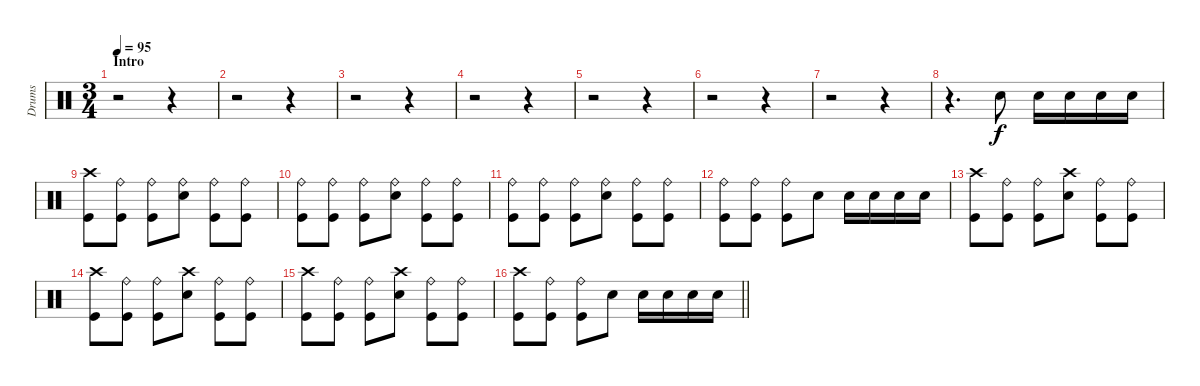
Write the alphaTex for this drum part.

\track ("Drums" "Drums") {instrument percussion}
\staff {score}
\articulation defaults
\ts (3 4)
\section ("" "Intro ")
\tempo 95
\clef neutral
\ks c
r.2{dy f} r.4 |
r.2 r.4 |
r.2 r.4 |
r.2 r.4 |
r.2 r.4 |
r.2 r.4 |
r.2 r.4 |
r.4{d} "Electric Snare (hit)".8 "Electric Snare (hit)".16 "Electric Snare (hit)".16 "Electric Snare (hit)".16 "Electric Snare (hit)".16 |
("Crash high (hit)" "Kick (hit)").8 ("Ride (bell)" "Kick (hit)").8 ("Ride (bell)" "Kick (hit)").8 ("Ride (bell)" "Electric Snare (hit)").8 ("Ride (bell)" "Kick (hit)").8 ("Ride (bell)" "Kick (hit)").8 |
("Ride (bell)" "Kick (hit)").8 ("Ride (bell)" "Kick (hit)").8 ("Ride (bell)" "Kick (hit)").8 ("Ride (bell)" "Electric Snare (hit)").8 ("Ride (bell)" "Kick (hit)").8 ("Ride (bell)" "Kick (hit)").8 |
("Ride (bell)" "Kick (hit)").8 ("Ride (bell)" "Kick (hit)").8 ("Ride (bell)" "Kick (hit)").8 ("Ride (bell)" "Electric Snare (hit)").8 ("Ride (bell)" "Kick (hit)").8 ("Ride (bell)" "Kick (hit)").8 |
("Ride (bell)" "Kick (hit)").8 ("Ride (bell)" "Kick (hit)").8 ("Ride (bell)" "Kick (hit)").8 "Electric Snare (hit)".8 "Electric Snare (hit)".16 "Electric Snare (hit)".16 "Electric Snare (hit)".16 "Electric Snare (hit)".16 |
("Crash high (hit)" "Kick (hit)").8 ("Ride (bell)" "Kick (hit)").8 ("Ride (bell)" "Kick (hit)").8 ("Crash high (hit)" "Electric Snare (hit)").8 ("Ride (bell)" "Kick (hit)").8 ("Ride (bell)" "Kick (hit)").8 |
("Crash high (hit)" "Kick (hit)").8 ("Ride (bell)" "Kick (hit)").8 ("Ride (bell)" "Kick (hit)").8 ("Crash high (hit)" "Electric Snare (hit)").8 ("Ride (bell)" "Kick (hit)").8 ("Ride (bell)" "Kick (hit)").8 |
("Crash high (hit)" "Kick (hit)").8 ("Ride (bell)" "Kick (hit)").8 ("Ride (bell)" "Kick (hit)").8 ("Crash high (hit)" "Electric Snare (hit)").8 ("Ride (bell)" "Kick (hit)").8 ("Ride (bell)" "Kick (hit)").8 |
\barLineRight lightlight
("Crash high (hit)" "Kick (hit)").8 ("Ride (bell)" "Kick (hit)").8 ("Ride (bell)" "Kick (hit)").8 "Electric Snare (hit)".8 "Electric Snare (hit)".16 "Electric Snare (hit)".16 "Electric Snare (hit)".16 "Electric Snare (hit)".16
